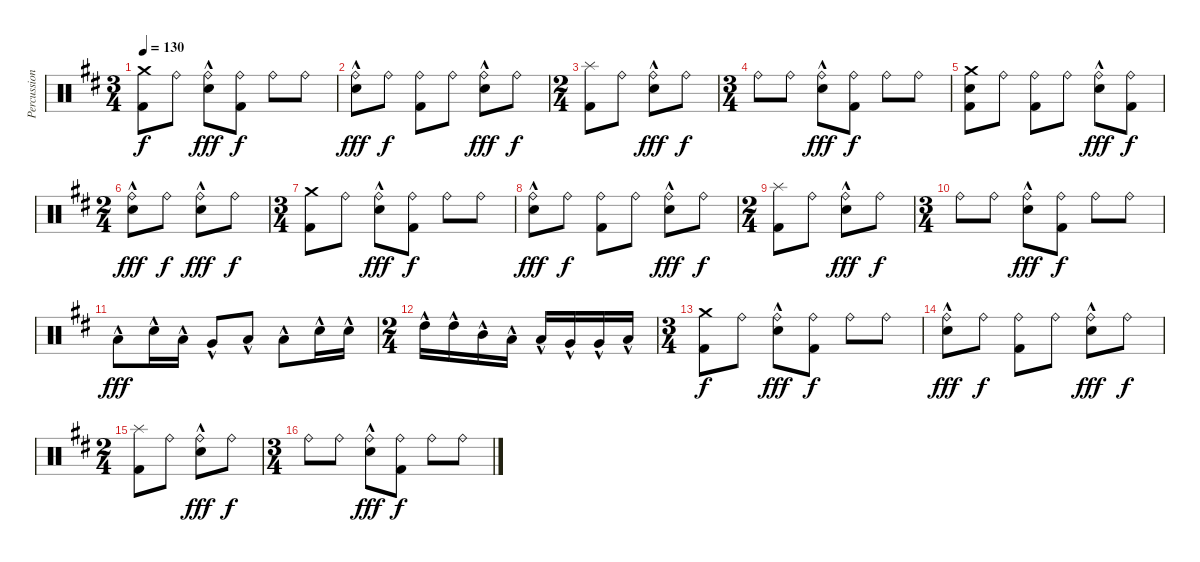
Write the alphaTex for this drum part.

\track ("Percussion" "Percussion") {instrument percussion bank 110}
\staff {score}
\articulation defaults
\ts (3 4)
\tempo 130
\clef neutral
\ks d
("Crash medium (hit)" "Kick (hit) 2").8{dy f} "Ride (bell)".8 ("Ride (bell)" "Electric Snare (hit)"{hac}).8{dy fff} ("Ride (bell)" "Kick (hit) 2").8{dy f} "Ride (bell)".8 "Ride (bell)".8 |
("Ride (bell)" "Electric Snare (hit)"{hac}).8{dy fff} "Ride (bell)".8{dy f} ("Ride (bell)" "Kick (hit) 2").8 "Ride (bell)".8 ("Ride (bell)" "Electric Snare (hit)"{hac}).8{dy fff} "Ride (bell)".8{dy f} |
\ts (2 4)
("Splash (hit)" "Kick (hit) 2").8 "Ride (bell)".8 ("Ride (bell)" "Electric Snare (hit)"{hac}).8{dy fff} "Ride (bell)".8{dy f} |
\ts (3 4)
"Ride (bell)".8 "Ride (bell)".8 ("Ride (bell)" "Electric Snare (hit)"{hac}).8{dy fff} ("Ride (bell)" "Kick (hit) 2").8{dy f} "Ride (bell)".8 "Ride (bell)".8 |
("Crash medium (hit)" "Electric Snare (hit)" "Kick (hit) 2").8 "Ride (bell)".8 ("Ride (bell)" "Kick (hit) 2").8 "Ride (bell)".8 ("Ride (bell)" "Electric Snare (hit)"{hac}).8{dy fff} ("Ride (bell)" "Kick (hit) 2").8{dy f} |
\ts (2 4)
("Ride (bell)" "Electric Snare (hit)"{hac}).8{dy fff} "Ride (bell)".8{dy f} ("Ride (bell)" "Electric Snare (hit)"{hac}).8{dy fff} "Ride (bell)".8{dy f} |
\ts (3 4)
("Crash medium (hit)" "Kick (hit) 2").8 "Ride (bell)".8 ("Ride (bell)" "Electric Snare (hit)"{hac}).8{dy fff} ("Ride (bell)" "Kick (hit) 2").8{dy f} "Ride (bell)".8 "Ride (bell)".8 |
("Ride (bell)" "Electric Snare (hit)"{hac}).8{dy fff} "Ride (bell)".8{dy f} ("Ride (bell)" "Kick (hit) 2").8 "Ride (bell)".8 ("Ride (bell)" "Electric Snare (hit)"{hac}).8{dy fff} "Ride (bell)".8{dy f} |
\ts (2 4)
("Splash (hit)" "Kick (hit) 2").8 "Ride (bell)".8 ("Ride (bell)" "Electric Snare (hit)"{hac}).8{dy fff} "Ride (bell)".8{dy f} |
\ts (3 4)
"Ride (bell)".8 "Ride (bell)".8 ("Ride (bell)" "Electric Snare (hit)"{hac}).8{dy fff} ("Ride (bell)" "Kick (hit) 2").8{dy f} "Ride (bell)".8 "Ride (bell)".8 |
"Low Floor Tom (hit)"{hac}.8{dy fff} "Electric Snare (hit)"{hac}.16 "Low Tom (hit)"{hac}.16 "Very Low Tom (hit)"{hac}.8 "Low Floor Tom (hit)"{hac}.8 "Low Floor Tom (hit)"{hac}.8 "Electric Snare (hit)"{hac}.16 "Electric Snare (hit)"{hac}.16 |
\ts (2 4)
"High Tom (hit)"{hac}.16 "High Tom (hit)"{hac}.16 "Mid Tom (hit)"{hac}.16 "Low Tom (hit)"{hac}.16 "Low Tom (hit)"{hac}.16 "Very Low Tom (hit)"{hac}.16 "Very Low Tom (hit)"{hac}.16 "Low Floor Tom (hit)"{hac}.16 |
\ts (3 4)
("Crash medium (hit)" "Kick (hit) 2").8{dy f} "Ride (bell)".8 ("Ride (bell)" "Electric Snare (hit)"{hac}).8{dy fff} ("Ride (bell)" "Kick (hit) 2").8{dy f} "Ride (bell)".8 "Ride (bell)".8 |
("Ride (bell)" "Electric Snare (hit)"{hac}).8{dy fff} "Ride (bell)".8{dy f} ("Ride (bell)" "Kick (hit) 2").8 "Ride (bell)".8 ("Ride (bell)" "Electric Snare (hit)"{hac}).8{dy fff} "Ride (bell)".8{dy f} |
\ts (2 4)
("Splash (hit)" "Kick (hit) 2").8 "Ride (bell)".8 ("Ride (bell)" "Electric Snare (hit)"{hac}).8{dy fff} "Ride (bell)".8{dy f} |
\ts (3 4)
"Ride (bell)".8 "Ride (bell)".8 ("Ride (bell)" "Electric Snare (hit)"{hac}).8{dy fff} ("Ride (bell)" "Kick (hit) 2").8{dy f} "Ride (bell)".8 "Ride (bell)".8
